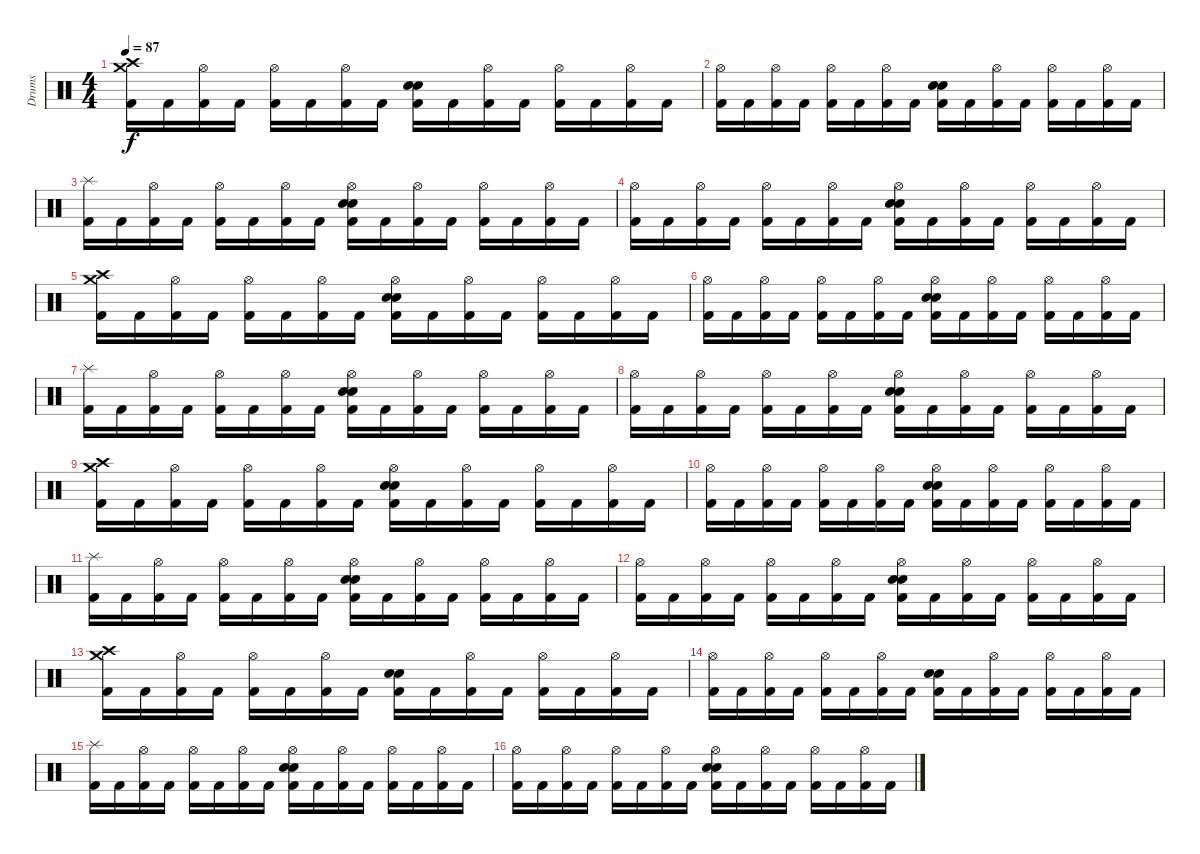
\track ("Drums" "Drums") {instrument percussion}
\staff {score}
\articulation defaults
\ts (4 4)
\tempo 87
\clef neutral
\ks c
("Kick (hit) 2" "Crash medium (hit)" "Crash high (hit)").16{dy f} "Kick (hit) 2".16 ("Kick (hit) 2" "Hi-Hat (open)").16 "Kick (hit) 2".16 ("Kick (hit) 2" "Hi-Hat (open)").16 "Kick (hit) 2".16 ("Kick (hit) 2" "Hi-Hat (open)").16 "Kick (hit) 2".16 ("Kick (hit) 2" "Snare (hit) 2" "Snare (hit) 2").16 "Kick (hit) 2".16 ("Kick (hit) 2" "Hi-Hat (open)").16 "Kick (hit) 2".16 ("Kick (hit) 2" "Hi-Hat (open)").16 "Kick (hit) 2".16 ("Kick (hit) 2" "Hi-Hat (open)").16 "Kick (hit) 2".16 |
("Kick (hit) 2" "Hi-Hat (open)").16 "Kick (hit) 2".16 ("Kick (hit) 2" "Hi-Hat (open)").16 "Kick (hit) 2".16 ("Kick (hit) 2" "Hi-Hat (open)").16 "Kick (hit) 2".16 ("Kick (hit) 2" "Hi-Hat (open)").16 "Kick (hit) 2".16 ("Kick (hit) 2" "Electric Snare (hit)" "Electric Snare (hit)").16 "Kick (hit) 2".16 ("Kick (hit) 2" "Hi-Hat (open)").16 "Kick (hit) 2".16 ("Kick (hit) 2" "Hi-Hat (open)").16 "Kick (hit) 2".16 ("Kick (hit) 2" "Hi-Hat (open)").16 "Kick (hit) 2".16 |
("Kick (hit) 2" "Splash (hit)").16 "Kick (hit) 2".16 ("Kick (hit) 2" "Hi-Hat (open)").16 "Kick (hit) 2".16 ("Kick (hit) 2" "Hi-Hat (open)").16 "Kick (hit) 2".16 ("Kick (hit) 2" "Hi-Hat (open)").16 "Kick (hit) 2".16 ("Kick (hit) 2" "Snare (hit) 2" "Snare (hit) 2" "Hi-Hat (open)").16 "Kick (hit) 2".16 ("Kick (hit) 2" "Hi-Hat (open)").16 "Kick (hit) 2".16 ("Kick (hit) 2" "Hi-Hat (open)").16 "Kick (hit) 2".16 ("Kick (hit) 2" "Hi-Hat (open)").16 "Kick (hit) 2".16 |
("Kick (hit) 2" "Hi-Hat (open)").16 "Kick (hit) 2".16 ("Kick (hit) 2" "Hi-Hat (open)").16 "Kick (hit) 2".16 ("Kick (hit) 2" "Hi-Hat (open)").16 "Kick (hit) 2".16 ("Kick (hit) 2" "Hi-Hat (open)").16 "Kick (hit) 2".16 ("Kick (hit) 2" "Electric Snare (hit)" "Electric Snare (hit)" "Hi-Hat (open)").16 "Kick (hit) 2".16 ("Kick (hit) 2" "Hi-Hat (open)").16 "Kick (hit) 2".16 ("Kick (hit) 2" "Hi-Hat (open)").16 "Kick (hit) 2".16 ("Kick (hit) 2" "Hi-Hat (open)").16 "Kick (hit) 2".16 |
("Kick (hit) 2" "Crash medium (hit)" "Crash high (hit)").16 "Kick (hit) 2".16 ("Kick (hit) 2" "Hi-Hat (open)").16 "Kick (hit) 2".16 ("Kick (hit) 2" "Hi-Hat (open)").16 "Kick (hit) 2".16 ("Kick (hit) 2" "Hi-Hat (open)").16 "Kick (hit) 2".16 ("Kick (hit) 2" "Snare (hit) 2" "Snare (hit) 2" "Hi-Hat (open)").16 "Kick (hit) 2".16 ("Kick (hit) 2" "Hi-Hat (open)").16 "Kick (hit) 2".16 ("Kick (hit) 2" "Hi-Hat (open)").16 "Kick (hit) 2".16 ("Kick (hit) 2" "Hi-Hat (open)").16 "Kick (hit) 2".16 |
("Kick (hit) 2" "Hi-Hat (open)").16 "Kick (hit) 2".16 ("Kick (hit) 2" "Hi-Hat (open)").16 "Kick (hit) 2".16 ("Kick (hit) 2" "Hi-Hat (open)").16 "Kick (hit) 2".16 ("Kick (hit) 2" "Hi-Hat (open)").16 "Kick (hit) 2".16 ("Kick (hit) 2" "Electric Snare (hit)" "Electric Snare (hit)" "Hi-Hat (open)").16 "Kick (hit) 2".16 ("Kick (hit) 2" "Hi-Hat (open)").16 "Kick (hit) 2".16 ("Kick (hit) 2" "Hi-Hat (open)").16 "Kick (hit) 2".16 ("Kick (hit) 2" "Hi-Hat (open)").16 "Kick (hit) 2".16 |
("Kick (hit) 2" "Splash (hit)").16 "Kick (hit) 2".16 ("Kick (hit) 2" "Hi-Hat (open)").16 "Kick (hit) 2".16 ("Kick (hit) 2" "Hi-Hat (open)").16 "Kick (hit) 2".16 ("Kick (hit) 2" "Hi-Hat (open)").16 "Kick (hit) 2".16 ("Kick (hit) 2" "Snare (hit) 2" "Snare (hit) 2" "Hi-Hat (open)").16 "Kick (hit) 2".16 ("Kick (hit) 2" "Hi-Hat (open)").16 "Kick (hit) 2".16 ("Kick (hit) 2" "Hi-Hat (open)").16 "Kick (hit) 2".16 ("Kick (hit) 2" "Hi-Hat (open)").16 "Kick (hit) 2".16 |
("Kick (hit) 2" "Hi-Hat (open)").16 "Kick (hit) 2".16 ("Kick (hit) 2" "Hi-Hat (open)").16 "Kick (hit) 2".16 ("Kick (hit) 2" "Hi-Hat (open)").16 "Kick (hit) 2".16 ("Kick (hit) 2" "Hi-Hat (open)").16 "Kick (hit) 2".16 ("Kick (hit) 2" "Electric Snare (hit)" "Electric Snare (hit)" "Hi-Hat (open)").16 "Kick (hit) 2".16 ("Kick (hit) 2" "Hi-Hat (open)").16 "Kick (hit) 2".16 ("Kick (hit) 2" "Hi-Hat (open)").16 "Kick (hit) 2".16 ("Kick (hit) 2" "Hi-Hat (open)").16 "Kick (hit) 2".16 |
("Kick (hit) 2" "Crash medium (hit)" "Crash high (hit)").16 "Kick (hit) 2".16 ("Kick (hit) 2" "Hi-Hat (open)").16 "Kick (hit) 2".16 ("Kick (hit) 2" "Hi-Hat (open)").16 "Kick (hit) 2".16 ("Kick (hit) 2" "Hi-Hat (open)").16 "Kick (hit) 2".16 ("Kick (hit) 2" "Snare (hit) 2" "Snare (hit) 2" "Hi-Hat (open)").16 "Kick (hit) 2".16 ("Kick (hit) 2" "Hi-Hat (open)").16 "Kick (hit) 2".16 ("Kick (hit) 2" "Hi-Hat (open)").16 "Kick (hit) 2".16 ("Kick (hit) 2" "Hi-Hat (open)").16 "Kick (hit) 2".16 |
("Kick (hit) 2" "Hi-Hat (open)").16 "Kick (hit) 2".16 ("Kick (hit) 2" "Hi-Hat (open)").16 "Kick (hit) 2".16 ("Kick (hit) 2" "Hi-Hat (open)").16 "Kick (hit) 2".16 ("Kick (hit) 2" "Hi-Hat (open)").16 "Kick (hit) 2".16 ("Kick (hit) 2" "Electric Snare (hit)" "Electric Snare (hit)" "Hi-Hat (open)").16 "Kick (hit) 2".16 ("Kick (hit) 2" "Hi-Hat (open)").16 "Kick (hit) 2".16 ("Kick (hit) 2" "Hi-Hat (open)").16 "Kick (hit) 2".16 ("Kick (hit) 2" "Hi-Hat (open)").16 "Kick (hit) 2".16 |
("Kick (hit) 2" "Splash (hit)").16 "Kick (hit) 2".16 ("Kick (hit) 2" "Hi-Hat (open)").16 "Kick (hit) 2".16 ("Kick (hit) 2" "Hi-Hat (open)").16 "Kick (hit) 2".16 ("Kick (hit) 2" "Hi-Hat (open)").16 "Kick (hit) 2".16 ("Kick (hit) 2" "Snare (hit) 2" "Snare (hit) 2" "Hi-Hat (open)").16 "Kick (hit) 2".16 ("Kick (hit) 2" "Hi-Hat (open)").16 "Kick (hit) 2".16 ("Kick (hit) 2" "Hi-Hat (open)").16 "Kick (hit) 2".16 ("Kick (hit) 2" "Hi-Hat (open)").16 "Kick (hit) 2".16 |
("Kick (hit) 2" "Hi-Hat (open)").16 "Kick (hit) 2".16 ("Kick (hit) 2" "Hi-Hat (open)").16 "Kick (hit) 2".16 ("Kick (hit) 2" "Hi-Hat (open)").16 "Kick (hit) 2".16 ("Kick (hit) 2" "Hi-Hat (open)").16 "Kick (hit) 2".16 ("Kick (hit) 2" "Electric Snare (hit)" "Electric Snare (hit)" "Hi-Hat (open)").16 "Kick (hit) 2".16 ("Kick (hit) 2" "Hi-Hat (open)").16 "Kick (hit) 2".16 ("Kick (hit) 2" "Hi-Hat (open)").16 "Kick (hit) 2".16 ("Kick (hit) 2" "Hi-Hat (open)").16 "Kick (hit) 2".16 |
("Kick (hit) 2" "Crash medium (hit)" "Crash high (hit)").16 "Kick (hit) 2".16 ("Kick (hit) 2" "Hi-Hat (open)").16 "Kick (hit) 2".16 ("Kick (hit) 2" "Hi-Hat (open)").16 "Kick (hit) 2".16 ("Kick (hit) 2" "Hi-Hat (open)").16 "Kick (hit) 2".16 ("Kick (hit) 2" "Snare (hit) 2" "Snare (hit) 2").16 "Kick (hit) 2".16 ("Kick (hit) 2" "Hi-Hat (open)").16 "Kick (hit) 2".16 ("Kick (hit) 2" "Hi-Hat (open)").16 "Kick (hit) 2".16 ("Kick (hit) 2" "Hi-Hat (open)").16 "Kick (hit) 2".16 |
("Kick (hit) 2" "Hi-Hat (open)").16 "Kick (hit) 2".16 ("Kick (hit) 2" "Hi-Hat (open)").16 "Kick (hit) 2".16 ("Kick (hit) 2" "Hi-Hat (open)").16 "Kick (hit) 2".16 ("Kick (hit) 2" "Hi-Hat (open)").16 "Kick (hit) 2".16 ("Kick (hit) 2" "Electric Snare (hit)" "Electric Snare (hit)").16 "Kick (hit) 2".16 ("Kick (hit) 2" "Hi-Hat (open)").16 "Kick (hit) 2".16 ("Kick (hit) 2" "Hi-Hat (open)").16 "Kick (hit) 2".16 ("Kick (hit) 2" "Hi-Hat (open)").16 "Kick (hit) 2".16 |
("Kick (hit) 2" "Splash (hit)").16 "Kick (hit) 2".16 ("Kick (hit) 2" "Hi-Hat (open)").16 "Kick (hit) 2".16 ("Kick (hit) 2" "Hi-Hat (open)").16 "Kick (hit) 2".16 ("Kick (hit) 2" "Hi-Hat (open)").16 "Kick (hit) 2".16 ("Kick (hit) 2" "Snare (hit) 2" "Snare (hit) 2" "Hi-Hat (open)").16 "Kick (hit) 2".16 ("Kick (hit) 2" "Hi-Hat (open)").16 "Kick (hit) 2".16 ("Kick (hit) 2" "Hi-Hat (open)").16 "Kick (hit) 2".16 ("Kick (hit) 2" "Hi-Hat (open)").16 "Kick (hit) 2".16 |
("Kick (hit) 2" "Hi-Hat (open)").16 "Kick (hit) 2".16 ("Kick (hit) 2" "Hi-Hat (open)").16 "Kick (hit) 2".16 ("Kick (hit) 2" "Hi-Hat (open)").16 "Kick (hit) 2".16 ("Kick (hit) 2" "Hi-Hat (open)").16 "Kick (hit) 2".16 ("Kick (hit) 2" "Electric Snare (hit)" "Electric Snare (hit)" "Hi-Hat (open)").16 "Kick (hit) 2".16 ("Kick (hit) 2" "Hi-Hat (open)").16 "Kick (hit) 2".16 ("Kick (hit) 2" "Hi-Hat (open)").16 "Kick (hit) 2".16 ("Kick (hit) 2" "Hi-Hat (open)").16 "Kick (hit) 2".16
